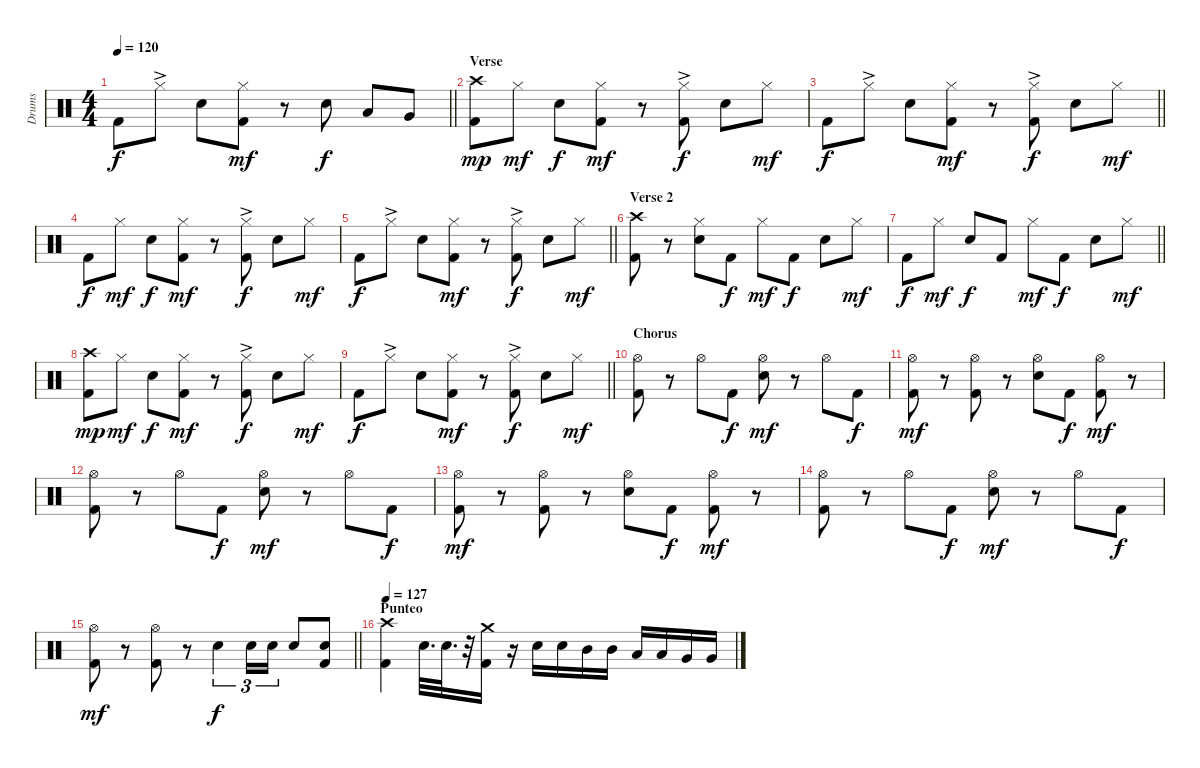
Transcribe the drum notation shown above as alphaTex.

\track ("Drums" "Drums") {instrument percussion}
\staff {score}
\articulation defaults
\ts (4 4)
\tempo 120
\clef neutral
\barLineRight lightlight
\ks c "Kick (hit) 2".8{dy f} "Hi-Hat (closed)"{ac}.8 "Snare (hit) 2".8
("Hi-Hat (closed)" "Kick (hit) 2").8{dy mf} r.8 "Snare (hit) 2".8{dy f} "Low Tom (hit)".8 "Very Low Tom (hit)".8 |
\section ("" "Verse")
("Crash high (hit)" "Kick (hit) 2").8{dy mp} "Hi-Hat (closed)".8{dy mf} "Snare (hit) 2".8{dy f} ("Hi-Hat (closed)" "Kick (hit) 2").8{dy mf} r.8 ("Hi-Hat (closed)"{ac} "Kick (hit) 2").8{dy f} "Snare (hit) 2".8 "Hi-Hat (closed)".8{dy mf} |
\barLineRight lightlight "Kick (hit) 2".8{dy f} "Hi-Hat (closed)"{ac}.8 "Snare (hit) 2".8
("Hi-Hat (closed)" "Kick (hit) 2").8{dy mf} r.8 ("Hi-Hat (closed)"{ac} "Kick (hit) 2").8{dy f} "Snare (hit) 2".8 "Hi-Hat (closed)".8{dy mf} |
"Kick (hit) 2".8{dy f} "Hi-Hat (closed)".8{dy mf} "Snare (hit) 2".8{dy f} ("Hi-Hat (closed)" "Kick (hit) 2").8{dy mf} r.8 ("Hi-Hat (closed)"{ac} "Kick (hit) 2").8{dy f} "Snare (hit) 2".8 "Hi-Hat (closed)".8{dy mf} |
\barLineRight lightlight "Kick (hit) 2".8{dy f} "Hi-Hat (closed)"{ac}.8 "Snare (hit) 2".8
("Hi-Hat (closed)" "Kick (hit) 2").8{dy mf} r.8 ("Hi-Hat (closed)"{ac} "Kick (hit) 2").8{dy f} "Snare (hit) 2".8 "Hi-Hat (closed)".8{dy mf} |
\section ("" "Verse 2")
("Crash high (hit)" "Kick (hit) 2").8 r.8 ("Hi-Hat (closed)" "Snare (hit) 2").8 "Kick (hit) 2".8{dy f} "Hi-Hat (closed)".8{dy mf} "Kick (hit) 2".8{dy f} "Snare (hit) 2".8 "Hi-Hat (closed)".8{dy mf} |
\barLineRight lightlight "Kick (hit) 2".8{dy f} "Hi-Hat (closed)".8{dy mf} "Snare (hit) 2".8{dy f} "Kick (hit) 2".8 "Hi-Hat (closed)".8{dy mf} "Kick (hit) 2".8{dy f} "Snare (hit) 2".8 "Hi-Hat (closed)".8{dy mf}
|
("Crash high (hit)" "Kick (hit) 2").8{dy mp} "Hi-Hat (closed)".8{dy mf} "Snare (hit) 2".8{dy f} ("Hi-Hat (closed)" "Kick (hit) 2").8{dy mf} r.8 ("Hi-Hat (closed)"{ac} "Kick (hit) 2").8{dy f} "Snare (hit) 2".8 "Hi-Hat (closed)".8{dy mf} |
\barLineRight lightlight "Kick (hit) 2".8{dy f} "Hi-Hat (closed)"{ac}.8 "Snare (hit) 2".8
("Hi-Hat (closed)" "Kick (hit) 2").8{dy mf} r.8 ("Hi-Hat (closed)"{ac} "Kick (hit) 2").8{dy f} "Snare (hit) 2".8 "Hi-Hat (closed)".8{dy mf} |
\section ("" "Chorus")
("Hi-Hat (open)" "Kick (hit) 2").8 r.8 "Hi-Hat (open)".8 "Kick (hit) 2".8{dy f} ("Hi-Hat (open)" "Snare (hit) 2").8{dy mf} r.8 "Hi-Hat (open)".8 "Kick (hit) 2".8{dy f} |
("Hi-Hat (open)" "Kick (hit) 2").8{dy mf} r.8 ("Hi-Hat (open)" "Kick (hit) 2").8 r.8 ("Hi-Hat (open)" "Snare (hit) 2").8 "Kick (hit) 2".8{dy f} ("Hi-Hat (open)" "Kick (hit) 2").8{dy mf} r.8 |
("Hi-Hat (open)" "Kick (hit) 2").8 r.8 "Hi-Hat (open)".8 "Kick (hit) 2".8{dy f} ("Hi-Hat (open)" "Snare (hit) 2").8{dy mf} r.8 "Hi-Hat (open)".8 "Kick (hit) 2".8{dy f} |
("Hi-Hat (open)" "Kick (hit) 2").8{dy mf} r.8 ("Hi-Hat (open)" "Kick (hit) 2").8 r.8 ("Hi-Hat (open)" "Snare (hit) 2").8 "Kick (hit) 2".8{dy f} ("Hi-Hat (open)" "Kick (hit) 2").8{dy mf} r.8 |
("Hi-Hat (open)" "Kick (hit) 2").8 r.8 "Hi-Hat (open)".8 "Kick (hit) 2".8{dy f} ("Hi-Hat (open)" "Snare (hit) 2").8{dy mf} r.8 "Hi-Hat (open)".8 "Kick (hit) 2".8{dy f} |
\barLineRight lightlight
("Hi-Hat (open)" "Kick (hit) 2").8{dy mf} r.8 ("Hi-Hat (open)" "Kick (hit) 2").8 r.8 "Snare (hit) 2".4{tu (3 2) dy f} "Snare (hit) 2".16{tu (3 2)} "Snare (hit) 2".16{tu (3 2)} "Snare (hit) 2".8 ("Snare (hit) 2" "Kick (hit) 2").8 |
\section ("" "Punteo")
\tempo 127
("Crash high (hit)" "Kick (hit) 2").4 "Snare (hit) 2".32{d} "Snare (hit) 2".32{d} r.32 ("Crash medium (hit)" "Kick (hit) 2").16 r.16 "Snare (hit) 2".16 "Snare (hit) 2".16 "Mid Tom (hit)".16 "Mid Tom (hit)".16 "Low Tom (hit)".16 "Low Tom (hit)".16 "Very Low Tom (hit)".16 "Very Low Tom (hit)".16
